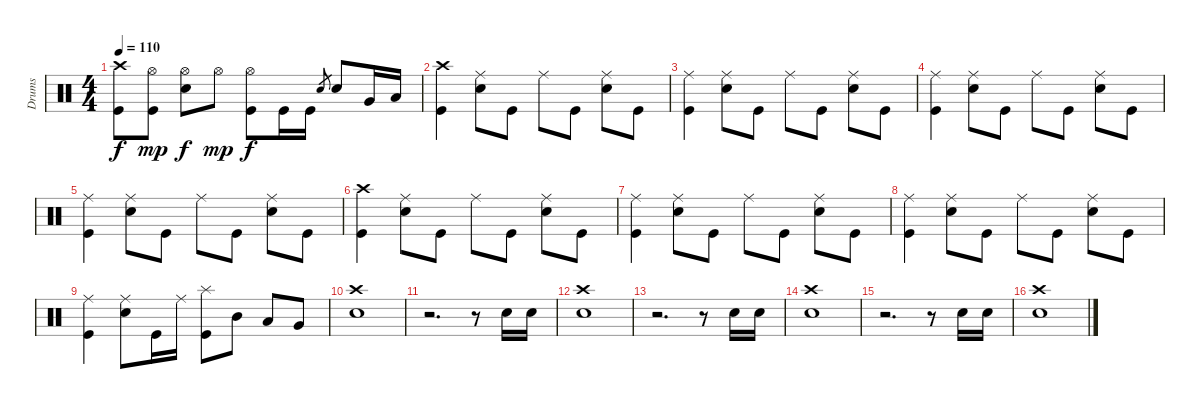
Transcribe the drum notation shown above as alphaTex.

\track ("Drums" "Drums") {instrument percussion}
\staff {score}
\articulation defaults
\ts (4 4)
\tempo 110
\clef neutral
\ks c
("Crash high (hit)" "Kick (hit)").8{dy f} ("Hi-Hat (open)" "Kick (hit)").8{dy mp} ("Hi-Hat (open)" "Electric Snare (hit)").8{dy f} "Hi-Hat (open)".8{dy mp} ("Hi-Hat (open)" "Kick (hit)").8{dy f} "Kick (hit)".16 "Kick (hit)".16 "Electric Snare (hit)".8{gr} "Electric Snare (hit)".8 "Very Low Tom (hit)".16 "Low Floor Tom (hit)".16 |
\section ("" "")
("Crash high (hit)" "Kick (hit)").4 ("Ride (middle)" "Electric Snare (hit)").8 "Kick (hit)".8 "Ride (middle)".8 "Kick (hit)".8 ("Ride (middle)" "Electric Snare (hit)").8 "Kick (hit)".8 |
("Ride (middle)" "Kick (hit)").4 ("Ride (middle)" "Electric Snare (hit)").8 "Kick (hit)".8 "Ride (middle)".8 "Kick (hit)".8 ("Ride (middle)" "Electric Snare (hit)").8 "Kick (hit)".8 |
("Ride (middle)" "Kick (hit)").4 ("Ride (middle)" "Electric Snare (hit)").8 "Kick (hit)".8 "Ride (middle)".8 "Kick (hit)".8 ("Ride (middle)" "Electric Snare (hit)").8 "Kick (hit)".8 |
("Ride (middle)" "Kick (hit)").4 ("Ride (middle)" "Electric Snare (hit)").8 "Kick (hit)".8 "Ride (middle)".8 "Kick (hit)".8 ("Ride (middle)" "Electric Snare (hit)").8 "Kick (hit)".8 |
("Crash high (hit)" "Kick (hit)").4 ("Ride (middle)" "Electric Snare (hit)").8 "Kick (hit)".8 "Ride (middle)".8 "Kick (hit)".8 ("Ride (middle)" "Electric Snare (hit)").8 "Kick (hit)".8 |
("Ride (middle)" "Kick (hit)").4 ("Ride (middle)" "Electric Snare (hit)").8 "Kick (hit)".8 "Ride (middle)".8 "Kick (hit)".8 ("Ride (middle)" "Electric Snare (hit)").8 "Kick (hit)".8 |
("Ride (middle)" "Kick (hit)").4 ("Ride (middle)" "Electric Snare (hit)").8 "Kick (hit)".8 "Ride (middle)".8 "Kick (hit)".8 ("Ride (middle)" "Electric Snare (hit)").8 "Kick (hit)".8 |
("Ride (middle)" "Kick (hit)").4 ("Ride (middle)" "Electric Snare (hit)").8 "Kick (hit)".16 "Ride (middle)".16 ("Splash (hit)" "Kick (hit)").8 "Mid Tom (hit)".8 "Low Tom (hit)".8 "Very Low Tom (hit)".8 |
\section ("" "")
("Crash high (hit)" "Electric Snare (hit)").1 |
r.2{d} r.8 "Electric Snare (hit)".16 "Electric Snare (hit)".16 |
("Crash high (hit)" "Electric Snare (hit)").1 |
r.2{d} r.8 "Electric Snare (hit)".16 "Electric Snare (hit)".16 |
("Crash high (hit)" "Electric Snare (hit)").1 |
r.2{d} r.8 "Electric Snare (hit)".16 "Electric Snare (hit)".16 |
("Crash high (hit)" "Electric Snare (hit)").1
